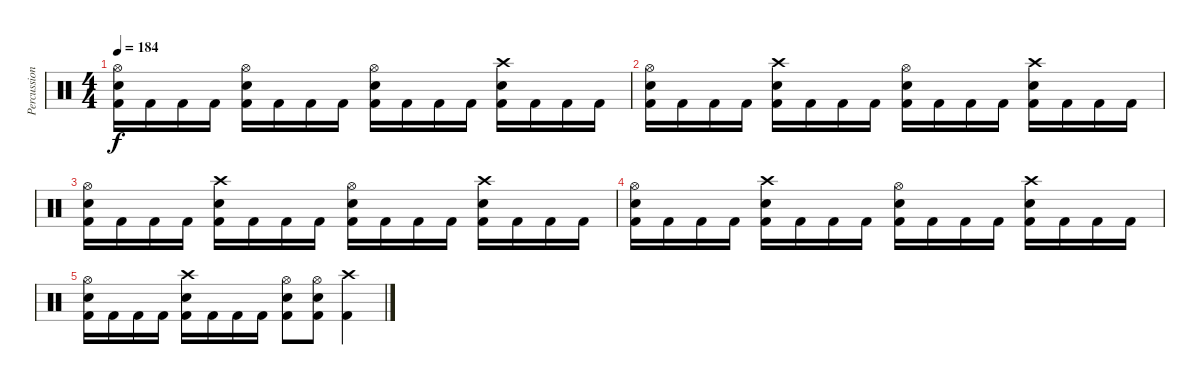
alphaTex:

\track ("Percussion" "Percussion") {instrument percussion}
\staff {score}
\articulation defaults
\ts (4 4)
\tempo 184
\clef neutral
\ks c
("Hi-Hat (open)" "Electric Snare (hit)" "Kick (hit) 2").16{dy f} "Kick (hit) 2".16 "Kick (hit) 2".16 "Kick (hit) 2".16 ("Hi-Hat (open)" "Electric Snare (hit)" "Kick (hit) 2").16 "Kick (hit) 2".16 "Kick (hit) 2".16 "Kick (hit) 2".16 ("Hi-Hat (open)" "Electric Snare (hit)" "Kick (hit) 2").16 "Kick (hit) 2".16 "Kick (hit) 2".16 "Kick (hit) 2".16 ("Crash high (hit)" "Electric Snare (hit)" "Kick (hit) 2").16 "Kick (hit) 2".16 "Kick (hit) 2".16 "Kick (hit) 2".16 |
("Hi-Hat (open)" "Electric Snare (hit)" "Kick (hit) 2").16 "Kick (hit) 2".16 "Kick (hit) 2".16 "Kick (hit) 2".16 ("Crash high (hit)" "Electric Snare (hit)" "Kick (hit) 2").16 "Kick (hit) 2".16 "Kick (hit) 2".16 "Kick (hit) 2".16 ("Hi-Hat (open)" "Electric Snare (hit)" "Kick (hit) 2").16 "Kick (hit) 2".16 "Kick (hit) 2".16 "Kick (hit) 2".16 ("Crash high (hit)" "Electric Snare (hit)" "Kick (hit) 2").16 "Kick (hit) 2".16 "Kick (hit) 2".16 "Kick (hit) 2".16 |
("Hi-Hat (open)" "Electric Snare (hit)" "Kick (hit) 2").16 "Kick (hit) 2".16 "Kick (hit) 2".16 "Kick (hit) 2".16 ("Crash high (hit)" "Electric Snare (hit)" "Kick (hit) 2").16 "Kick (hit) 2".16 "Kick (hit) 2".16 "Kick (hit) 2".16 ("Hi-Hat (open)" "Electric Snare (hit)" "Kick (hit) 2").16 "Kick (hit) 2".16 "Kick (hit) 2".16 "Kick (hit) 2".16 ("Crash high (hit)" "Electric Snare (hit)" "Kick (hit) 2").16 "Kick (hit) 2".16 "Kick (hit) 2".16 "Kick (hit) 2".16 |
("Hi-Hat (open)" "Electric Snare (hit)" "Kick (hit) 2").16 "Kick (hit) 2".16 "Kick (hit) 2".16 "Kick (hit) 2".16 ("Crash high (hit)" "Electric Snare (hit)" "Kick (hit) 2").16 "Kick (hit) 2".16 "Kick (hit) 2".16 "Kick (hit) 2".16 ("Hi-Hat (open)" "Electric Snare (hit)" "Kick (hit) 2").16 "Kick (hit) 2".16 "Kick (hit) 2".16 "Kick (hit) 2".16 ("Crash high (hit)" "Electric Snare (hit)" "Kick (hit) 2").16 "Kick (hit) 2".16 "Kick (hit) 2".16 "Kick (hit) 2".16 |
("Hi-Hat (open)" "Electric Snare (hit)" "Kick (hit) 2").16 "Kick (hit) 2".16 "Kick (hit) 2".16 "Kick (hit) 2".16 ("Crash high (hit)" "Electric Snare (hit)" "Kick (hit) 2").16 "Kick (hit) 2".16 "Kick (hit) 2".16 "Kick (hit) 2".16 ("Hi-Hat (open)" "Electric Snare (hit)" "Kick (hit) 2").8 ("Hi-Hat (open)" "Electric Snare (hit)" "Kick (hit) 2").8 ("Crash high (hit)" "Kick (hit) 2").4
